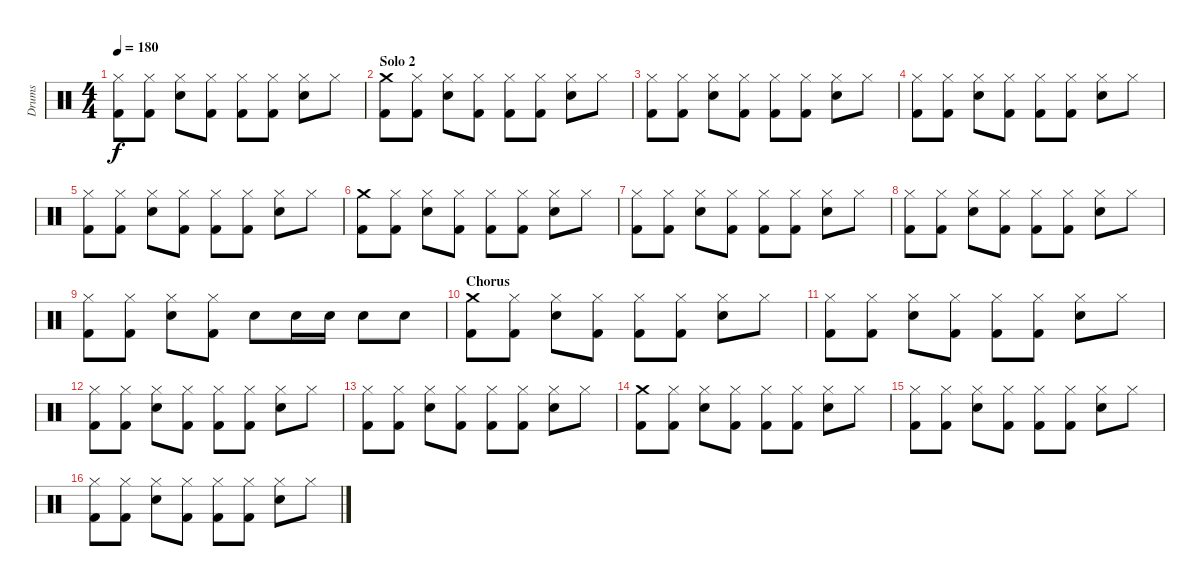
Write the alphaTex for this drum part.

\track ("Drums" "Drums") {instrument percussion}
\staff {score}
\articulation defaults
\ts (4 4)
\tempo 180
\clef neutral
\ks c
("Hi-Hat (closed)" "Kick (hit) 2").8{dy f} ("Hi-Hat (closed)" "Kick (hit) 2").8 ("Hi-Hat (closed)" "Electric Snare (hit)").8 ("Hi-Hat (closed)" "Kick (hit) 2").8 ("Hi-Hat (closed)" "Kick (hit) 2").8 ("Hi-Hat (closed)" "Kick (hit) 2").8 ("Hi-Hat (closed)" "Electric Snare (hit)").8 "Hi-Hat (closed)".8 |
\section ("" "Solo 2")
("Crash medium (hit)" "Kick (hit) 2").8 ("Hi-Hat (closed)" "Kick (hit) 2").8 ("Hi-Hat (closed)" "Electric Snare (hit)").8 ("Hi-Hat (closed)" "Kick (hit) 2").8 ("Hi-Hat (closed)" "Kick (hit) 2").8 ("Hi-Hat (closed)" "Kick (hit) 2").8 ("Hi-Hat (closed)" "Electric Snare (hit)").8 "Hi-Hat (closed)".8 |
("Hi-Hat (closed)" "Kick (hit) 2").8 ("Hi-Hat (closed)" "Kick (hit) 2").8 ("Hi-Hat (closed)" "Electric Snare (hit)").8 ("Hi-Hat (closed)" "Kick (hit) 2").8 ("Hi-Hat (closed)" "Kick (hit) 2").8 ("Hi-Hat (closed)" "Kick (hit) 2").8 ("Hi-Hat (closed)" "Electric Snare (hit)").8 "Hi-Hat (closed)".8 |
("Hi-Hat (closed)" "Kick (hit) 2").8 ("Hi-Hat (closed)" "Kick (hit) 2").8 ("Hi-Hat (closed)" "Electric Snare (hit)").8 ("Hi-Hat (closed)" "Kick (hit) 2").8 ("Hi-Hat (closed)" "Kick (hit) 2").8 ("Hi-Hat (closed)" "Kick (hit) 2").8 ("Hi-Hat (closed)" "Electric Snare (hit)").8 "Hi-Hat (closed)".8 |
("Hi-Hat (closed)" "Kick (hit) 2").8 ("Hi-Hat (closed)" "Kick (hit) 2").8 ("Hi-Hat (closed)" "Electric Snare (hit)").8 ("Hi-Hat (closed)" "Kick (hit) 2").8 ("Hi-Hat (closed)" "Kick (hit) 2").8 ("Hi-Hat (closed)" "Kick (hit) 2").8 ("Hi-Hat (closed)" "Electric Snare (hit)").8 "Hi-Hat (closed)".8 |
("Crash medium (hit)" "Kick (hit) 2").8 ("Hi-Hat (closed)" "Kick (hit) 2").8 ("Hi-Hat (closed)" "Electric Snare (hit)").8 ("Hi-Hat (closed)" "Kick (hit) 2").8 ("Hi-Hat (closed)" "Kick (hit) 2").8 ("Hi-Hat (closed)" "Kick (hit) 2").8 ("Hi-Hat (closed)" "Electric Snare (hit)").8 "Hi-Hat (closed)".8 |
("Hi-Hat (closed)" "Kick (hit) 2").8 ("Hi-Hat (closed)" "Kick (hit) 2").8 ("Hi-Hat (closed)" "Electric Snare (hit)").8 ("Hi-Hat (closed)" "Kick (hit) 2").8 ("Hi-Hat (closed)" "Kick (hit) 2").8 ("Hi-Hat (closed)" "Kick (hit) 2").8 ("Hi-Hat (closed)" "Electric Snare (hit)").8 "Hi-Hat (closed)".8 |
("Hi-Hat (closed)" "Kick (hit) 2").8 ("Hi-Hat (closed)" "Kick (hit) 2").8 ("Hi-Hat (closed)" "Electric Snare (hit)").8 ("Hi-Hat (closed)" "Kick (hit) 2").8 ("Hi-Hat (closed)" "Kick (hit) 2").8 ("Hi-Hat (closed)" "Kick (hit) 2").8 ("Hi-Hat (closed)" "Electric Snare (hit)").8 "Hi-Hat (closed)".8 |
("Hi-Hat (closed)" "Kick (hit) 2").8 ("Hi-Hat (closed)" "Kick (hit) 2").8 ("Hi-Hat (closed)" "Electric Snare (hit)").8 ("Hi-Hat (closed)" "Kick (hit) 2").8 "Electric Snare (hit)".8 "Electric Snare (hit)".16 "Electric Snare (hit)".16 "Electric Snare (hit)".8 "Electric Snare (hit)".8 |
\section ("" "Chorus")
("Crash medium (hit)" "Kick (hit) 2").8 ("Hi-Hat (closed)" "Kick (hit) 2").8 ("Hi-Hat (closed)" "Electric Snare (hit)").8 ("Hi-Hat (closed)" "Kick (hit) 2").8 ("Hi-Hat (closed)" "Kick (hit) 2").8 ("Hi-Hat (closed)" "Kick (hit) 2").8 ("Hi-Hat (closed)" "Electric Snare (hit)").8 "Hi-Hat (closed)".8 |
("Hi-Hat (closed)" "Kick (hit) 2").8 ("Hi-Hat (closed)" "Kick (hit) 2").8 ("Hi-Hat (closed)" "Electric Snare (hit)").8 ("Hi-Hat (closed)" "Kick (hit) 2").8 ("Hi-Hat (closed)" "Kick (hit) 2").8 ("Hi-Hat (closed)" "Kick (hit) 2").8 ("Hi-Hat (closed)" "Electric Snare (hit)").8 "Hi-Hat (closed)".8 |
("Hi-Hat (closed)" "Kick (hit) 2").8 ("Hi-Hat (closed)" "Kick (hit) 2").8 ("Hi-Hat (closed)" "Electric Snare (hit)").8 ("Hi-Hat (closed)" "Kick (hit) 2").8 ("Hi-Hat (closed)" "Kick (hit) 2").8 ("Hi-Hat (closed)" "Kick (hit) 2").8 ("Hi-Hat (closed)" "Electric Snare (hit)").8 "Hi-Hat (closed)".8 |
("Hi-Hat (closed)" "Kick (hit) 2").8 ("Hi-Hat (closed)" "Kick (hit) 2").8 ("Hi-Hat (closed)" "Electric Snare (hit)").8 ("Hi-Hat (closed)" "Kick (hit) 2").8 ("Hi-Hat (closed)" "Kick (hit) 2").8 ("Hi-Hat (closed)" "Kick (hit) 2").8 ("Hi-Hat (closed)" "Electric Snare (hit)").8 "Hi-Hat (closed)".8 |
("Crash medium (hit)" "Kick (hit) 2").8 ("Hi-Hat (closed)" "Kick (hit) 2").8 ("Hi-Hat (closed)" "Electric Snare (hit)").8 ("Hi-Hat (closed)" "Kick (hit) 2").8 ("Hi-Hat (closed)" "Kick (hit) 2").8 ("Hi-Hat (closed)" "Kick (hit) 2").8 ("Hi-Hat (closed)" "Electric Snare (hit)").8 "Hi-Hat (closed)".8 |
("Hi-Hat (closed)" "Kick (hit) 2").8 ("Hi-Hat (closed)" "Kick (hit) 2").8 ("Hi-Hat (closed)" "Electric Snare (hit)").8 ("Hi-Hat (closed)" "Kick (hit) 2").8 ("Hi-Hat (closed)" "Kick (hit) 2").8 ("Hi-Hat (closed)" "Kick (hit) 2").8 ("Hi-Hat (closed)" "Electric Snare (hit)").8 "Hi-Hat (closed)".8 |
("Hi-Hat (closed)" "Kick (hit) 2").8 ("Hi-Hat (closed)" "Kick (hit) 2").8 ("Hi-Hat (closed)" "Electric Snare (hit)").8 ("Hi-Hat (closed)" "Kick (hit) 2").8 ("Hi-Hat (closed)" "Kick (hit) 2").8 ("Hi-Hat (closed)" "Kick (hit) 2").8 ("Hi-Hat (closed)" "Electric Snare (hit)").8 "Hi-Hat (closed)".8
